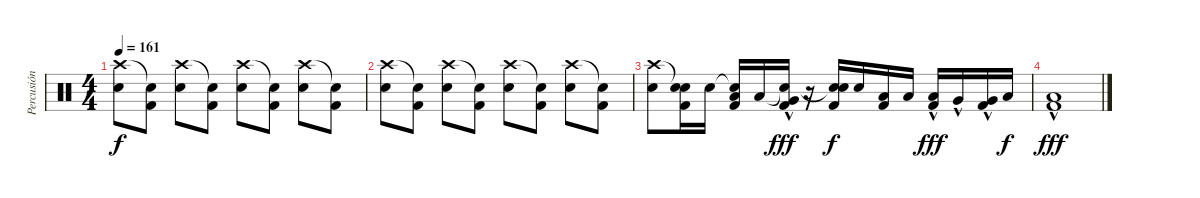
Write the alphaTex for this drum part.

\track ("Percusión" "Percusión") {instrument percussion}
\staff {score}
\articulation defaults
\ts (4 4)
\tempo 161
\clef neutral
\ks c
("Crash high (hit)" "Snare (hit) 2").8{dy f} ("Snare (hit)"{t} "Kick (hit) 2").8 ("Crash high (hit)" "Snare (hit) 2").8 ("Snare (hit)"{t} "Kick (hit) 2").8 ("Crash high (hit)" "Snare (hit) 2").8 ("Snare (hit)"{t} "Kick (hit) 2").8 ("Crash high (hit)" "Snare (hit) 2").8 ("Snare (hit)"{t} "Kick (hit) 2").8 |
("Crash high (hit)" "Snare (hit) 2").8 ("Snare (hit)"{t} "Kick (hit) 2").8 ("Crash high (hit)" "Snare (hit) 2").8 ("Snare (hit)"{t} "Kick (hit) 2").8 ("Crash high (hit)" "Snare (hit) 2").8 ("Snare (hit)"{t} "Kick (hit) 2").8 ("Crash high (hit)" "Snare (hit) 2").8 ("Snare (hit)"{t} "Kick (hit) 2").8 |
("Crash high (hit)" "Snare (hit) 2").8 ("Snare (hit)"{t} "Snare (hit) 2" "Kick (hit) 2").16 "Snare (hit) 2".16 ("Snare (hit)"{t} "Low Tom (hit)" "Kick (hit) 2").16 "Low Tom (hit)".16 ("Snare (hit)"{t} "Very Low Tom (hit)"{hac} "Kick (hit) 2").16{dy fff} r.16 ("Snare (hit)"{t} "Snare (hit) 2" "Kick (hit) 2").16{dy f} "Snare (hit) 2".16 ("Low Tom (hit)" "Kick (hit) 2").16 "Low Tom (hit)".16 ("Low Tom (hit)"{hac} "Kick (hit) 2").16{dy fff} "Very Low Tom (hit)"{hac}.16 ("Very Low Tom (hit)"{hac} "Kick (hit) 2").16 "Low Floor Tom (hit)".16{dy f} |
("Low Floor Tom (hit)"{hac} "Kick (hit) 2").1{dy fff}
